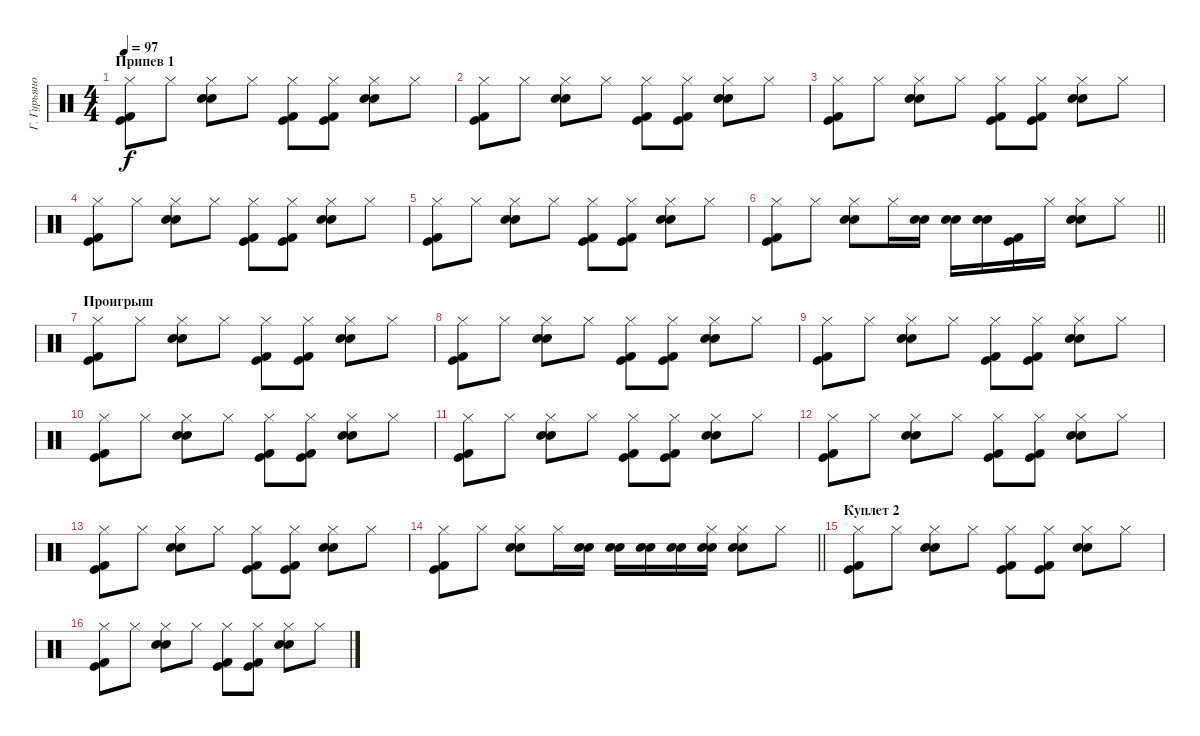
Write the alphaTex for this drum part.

\track ("Г. Гурьянов" "Г. Гурьяно") {instrument percussion}
\staff {score}
\articulation defaults
\ts (4 4)
\section ("" "Припев 1")
\tempo 97
\clef neutral
\ks c
("Kick (hit) 2" "Kick (hit)" "Hi-Hat (closed)").8{dy f} "Hi-Hat (closed)".8 ("Electric Snare (hit)" "Snare (hit) 2" "Hi-Hat (closed)").8 "Hi-Hat (closed)".8 ("Kick (hit) 2" "Kick (hit)" "Hi-Hat (closed)").8 ("Kick (hit) 2" "Kick (hit)" "Hi-Hat (closed)").8 ("Electric Snare (hit)" "Snare (hit) 2" "Hi-Hat (closed)").8 "Hi-Hat (closed)".8 |
("Kick (hit) 2" "Kick (hit)" "Hi-Hat (closed)").8 "Hi-Hat (closed)".8 ("Electric Snare (hit)" "Snare (hit) 2" "Hi-Hat (closed)").8 "Hi-Hat (closed)".8 ("Kick (hit) 2" "Kick (hit)" "Hi-Hat (closed)").8 ("Kick (hit) 2" "Kick (hit)" "Hi-Hat (closed)").8 ("Electric Snare (hit)" "Snare (hit) 2" "Hi-Hat (closed)").8 "Hi-Hat (closed)".8 |
("Kick (hit) 2" "Kick (hit)" "Hi-Hat (closed)").8 "Hi-Hat (closed)".8 ("Electric Snare (hit)" "Snare (hit) 2" "Hi-Hat (closed)").8 "Hi-Hat (closed)".8 ("Kick (hit) 2" "Kick (hit)" "Hi-Hat (closed)").8 ("Kick (hit) 2" "Kick (hit)" "Hi-Hat (closed)").8 ("Electric Snare (hit)" "Snare (hit) 2" "Hi-Hat (closed)").8 "Hi-Hat (closed)".8 |
("Kick (hit) 2" "Kick (hit)" "Hi-Hat (closed)").8 "Hi-Hat (closed)".8 ("Electric Snare (hit)" "Snare (hit) 2" "Hi-Hat (closed)").8 "Hi-Hat (closed)".8 ("Kick (hit) 2" "Kick (hit)" "Hi-Hat (closed)").8 ("Kick (hit) 2" "Kick (hit)" "Hi-Hat (closed)").8 ("Electric Snare (hit)" "Snare (hit) 2" "Hi-Hat (closed)").8 "Hi-Hat (closed)".8 |
("Kick (hit) 2" "Kick (hit)" "Hi-Hat (closed)").8 "Hi-Hat (closed)".8 ("Electric Snare (hit)" "Snare (hit) 2" "Hi-Hat (closed)").8 "Hi-Hat (closed)".8 ("Kick (hit) 2" "Kick (hit)" "Hi-Hat (closed)").8 ("Kick (hit) 2" "Kick (hit)" "Hi-Hat (closed)").8 ("Electric Snare (hit)" "Snare (hit) 2" "Hi-Hat (closed)").8 "Hi-Hat (closed)".8 |
\barLineRight lightlight
("Kick (hit) 2" "Kick (hit)" "Hi-Hat (closed)").8 "Hi-Hat (closed)".8 ("Electric Snare (hit)" "Snare (hit) 2" "Hi-Hat (closed)").8 "Hi-Hat (closed)".16 ("Electric Snare (hit)" "Snare (hit) 2").16 ("Electric Snare (hit)" "Snare (hit) 2").16 ("Electric Snare (hit)" "Snare (hit) 2").16 ("Kick (hit) 2" "Kick (hit)").16 "Hi-Hat (closed)".16 ("Electric Snare (hit)" "Snare (hit) 2" "Hi-Hat (closed)").8 "Hi-Hat (closed)".8 |
\section ("" "Проигрыш")
("Kick (hit) 2" "Kick (hit)" "Hi-Hat (closed)").8 "Hi-Hat (closed)".8 ("Electric Snare (hit)" "Snare (hit) 2" "Hi-Hat (closed)").8 "Hi-Hat (closed)".8 ("Kick (hit) 2" "Kick (hit)" "Hi-Hat (closed)").8 ("Kick (hit) 2" "Kick (hit)" "Hi-Hat (closed)").8 ("Electric Snare (hit)" "Snare (hit) 2" "Hi-Hat (closed)").8 "Hi-Hat (closed)".8 |
("Kick (hit) 2" "Kick (hit)" "Hi-Hat (closed)").8 "Hi-Hat (closed)".8 ("Electric Snare (hit)" "Snare (hit) 2" "Hi-Hat (closed)").8 "Hi-Hat (closed)".8 ("Kick (hit) 2" "Kick (hit)" "Hi-Hat (closed)").8 ("Kick (hit) 2" "Kick (hit)" "Hi-Hat (closed)").8 ("Electric Snare (hit)" "Snare (hit) 2" "Hi-Hat (closed)").8 "Hi-Hat (closed)".8 |
("Kick (hit) 2" "Kick (hit)" "Hi-Hat (closed)").8 "Hi-Hat (closed)".8 ("Electric Snare (hit)" "Snare (hit) 2" "Hi-Hat (closed)").8 "Hi-Hat (closed)".8 ("Kick (hit) 2" "Kick (hit)" "Hi-Hat (closed)").8 ("Kick (hit) 2" "Kick (hit)" "Hi-Hat (closed)").8 ("Electric Snare (hit)" "Snare (hit) 2" "Hi-Hat (closed)").8 "Hi-Hat (closed)".8 |
("Kick (hit) 2" "Kick (hit)" "Hi-Hat (closed)").8 "Hi-Hat (closed)".8 ("Electric Snare (hit)" "Snare (hit) 2" "Hi-Hat (closed)").8 "Hi-Hat (closed)".8 ("Kick (hit) 2" "Kick (hit)" "Hi-Hat (closed)").8 ("Kick (hit) 2" "Kick (hit)" "Hi-Hat (closed)").8 ("Electric Snare (hit)" "Snare (hit) 2" "Hi-Hat (closed)").8 "Hi-Hat (closed)".8 |
("Kick (hit) 2" "Kick (hit)" "Hi-Hat (closed)").8 "Hi-Hat (closed)".8 ("Electric Snare (hit)" "Snare (hit) 2" "Hi-Hat (closed)").8 "Hi-Hat (closed)".8 ("Kick (hit) 2" "Kick (hit)" "Hi-Hat (closed)").8 ("Kick (hit) 2" "Kick (hit)" "Hi-Hat (closed)").8 ("Electric Snare (hit)" "Snare (hit) 2" "Hi-Hat (closed)").8 "Hi-Hat (closed)".8 |
("Kick (hit) 2" "Kick (hit)" "Hi-Hat (closed)").8 "Hi-Hat (closed)".8 ("Electric Snare (hit)" "Snare (hit) 2" "Hi-Hat (closed)").8 "Hi-Hat (closed)".8 ("Kick (hit) 2" "Kick (hit)" "Hi-Hat (closed)").8 ("Kick (hit) 2" "Kick (hit)" "Hi-Hat (closed)").8 ("Electric Snare (hit)" "Snare (hit) 2" "Hi-Hat (closed)").8 "Hi-Hat (closed)".8 |
("Kick (hit) 2" "Kick (hit)" "Hi-Hat (closed)").8 "Hi-Hat (closed)".8 ("Electric Snare (hit)" "Snare (hit) 2" "Hi-Hat (closed)").8 "Hi-Hat (closed)".8 ("Kick (hit) 2" "Kick (hit)" "Hi-Hat (closed)").8 ("Kick (hit) 2" "Kick (hit)" "Hi-Hat (closed)").8 ("Electric Snare (hit)" "Snare (hit) 2" "Hi-Hat (closed)").8 "Hi-Hat (closed)".8 |
\barLineRight lightlight
("Kick (hit) 2" "Kick (hit)" "Hi-Hat (closed)").8 "Hi-Hat (closed)".8 ("Electric Snare (hit)" "Snare (hit) 2" "Hi-Hat (closed)").8 "Hi-Hat (closed)".16 ("Electric Snare (hit)" "Snare (hit) 2").16 ("Electric Snare (hit)" "Snare (hit) 2").16 ("Electric Snare (hit)" "Snare (hit) 2").16 ("Electric Snare (hit)" "Snare (hit) 2").16 ("Electric Snare (hit)" "Snare (hit) 2" "Hi-Hat (closed)").16 ("Electric Snare (hit)" "Snare (hit) 2" "Hi-Hat (closed)").8 "Hi-Hat (closed)".8 |
\section ("" "Куплет 2")
("Kick (hit) 2" "Kick (hit)" "Hi-Hat (closed)").8 "Hi-Hat (closed)".8 ("Electric Snare (hit)" "Snare (hit) 2" "Hi-Hat (closed)").8 "Hi-Hat (closed)".8 ("Kick (hit) 2" "Kick (hit)" "Hi-Hat (closed)").8 ("Kick (hit) 2" "Kick (hit)" "Hi-Hat (closed)").8 ("Electric Snare (hit)" "Snare (hit) 2" "Hi-Hat (closed)").8 "Hi-Hat (closed)".8 |
("Kick (hit) 2" "Kick (hit)" "Hi-Hat (closed)").8 "Hi-Hat (closed)".8 ("Electric Snare (hit)" "Snare (hit) 2" "Hi-Hat (closed)").8 "Hi-Hat (closed)".8 ("Kick (hit) 2" "Kick (hit)" "Hi-Hat (closed)").8 ("Kick (hit) 2" "Kick (hit)" "Hi-Hat (closed)").8 ("Electric Snare (hit)" "Snare (hit) 2" "Hi-Hat (closed)").8 "Hi-Hat (closed)".8
